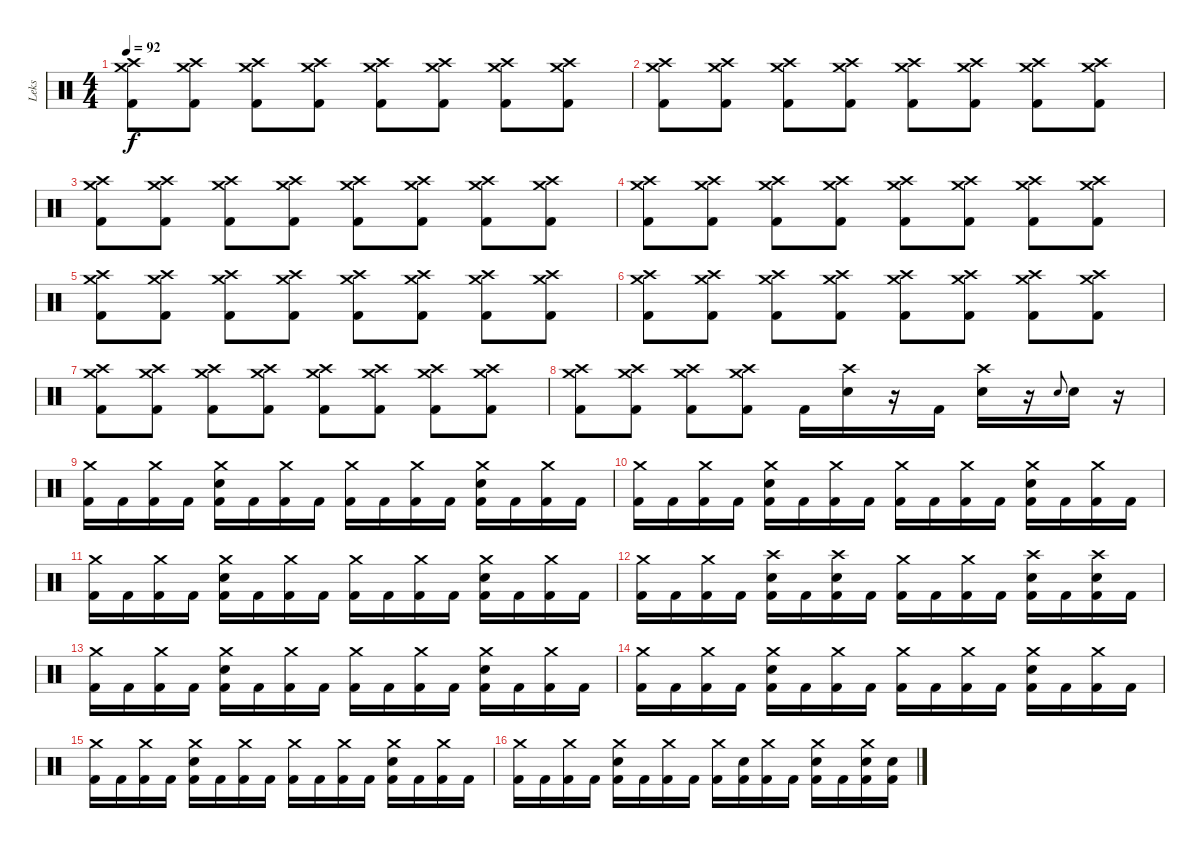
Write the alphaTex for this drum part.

\track ("Leks" "Leks") {instrument percussion}
\staff {score}
\articulation defaults
\ts (4 4)
\tempo 92
\clef neutral
\ks c
("Crash high (hit)" "Crash medium (hit)" "Kick (hit) 2").8{dy f} ("Crash high (hit)" "Crash medium (hit)" "Kick (hit) 2").8 ("Crash high (hit)" "Crash medium (hit)" "Kick (hit) 2").8 ("Crash high (hit)" "Crash medium (hit)" "Kick (hit) 2").8 ("Crash high (hit)" "Crash medium (hit)" "Kick (hit) 2").8 ("Crash high (hit)" "Crash medium (hit)" "Kick (hit) 2").8 ("Crash high (hit)" "Crash medium (hit)" "Kick (hit) 2").8 ("Crash high (hit)" "Crash medium (hit)" "Kick (hit) 2").8 |
("Crash high (hit)" "Crash medium (hit)" "Kick (hit) 2").8 ("Crash high (hit)" "Crash medium (hit)" "Kick (hit) 2").8 ("Crash high (hit)" "Crash medium (hit)" "Kick (hit) 2").8 ("Crash high (hit)" "Crash medium (hit)" "Kick (hit) 2").8 ("Crash high (hit)" "Crash medium (hit)" "Kick (hit) 2").8 ("Crash high (hit)" "Crash medium (hit)" "Kick (hit) 2").8 ("Crash high (hit)" "Crash medium (hit)" "Kick (hit) 2").8 ("Crash high (hit)" "Crash medium (hit)" "Kick (hit) 2").8 |
("Crash high (hit)" "Crash medium (hit)" "Kick (hit) 2").8 ("Crash high (hit)" "Crash medium (hit)" "Kick (hit) 2").8 ("Crash high (hit)" "Crash medium (hit)" "Kick (hit) 2").8 ("Crash high (hit)" "Crash medium (hit)" "Kick (hit) 2").8 ("Crash high (hit)" "Crash medium (hit)" "Kick (hit) 2").8 ("Crash high (hit)" "Crash medium (hit)" "Kick (hit) 2").8 ("Crash high (hit)" "Crash medium (hit)" "Kick (hit) 2").8 ("Crash high (hit)" "Crash medium (hit)" "Kick (hit) 2").8 |
("Crash high (hit)" "Crash medium (hit)" "Kick (hit) 2").8 ("Crash high (hit)" "Crash medium (hit)" "Kick (hit) 2").8 ("Crash high (hit)" "Crash medium (hit)" "Kick (hit) 2").8 ("Crash high (hit)" "Crash medium (hit)" "Kick (hit) 2").8 ("Crash high (hit)" "Crash medium (hit)" "Kick (hit) 2").8 ("Crash high (hit)" "Crash medium (hit)" "Kick (hit) 2").8 ("Crash high (hit)" "Crash medium (hit)" "Kick (hit) 2").8 ("Crash high (hit)" "Crash medium (hit)" "Kick (hit) 2").8 |
("Crash high (hit)" "Crash medium (hit)" "Kick (hit) 2").8 ("Crash high (hit)" "Crash medium (hit)" "Kick (hit) 2").8 ("Crash high (hit)" "Crash medium (hit)" "Kick (hit) 2").8 ("Crash high (hit)" "Crash medium (hit)" "Kick (hit) 2").8 ("Crash high (hit)" "Crash medium (hit)" "Kick (hit) 2").8 ("Crash high (hit)" "Crash medium (hit)" "Kick (hit) 2").8 ("Crash high (hit)" "Crash medium (hit)" "Kick (hit) 2").8 ("Crash high (hit)" "Crash medium (hit)" "Kick (hit) 2").8 |
("Crash high (hit)" "Crash medium (hit)" "Kick (hit) 2").8 ("Crash high (hit)" "Crash medium (hit)" "Kick (hit) 2").8 ("Crash high (hit)" "Crash medium (hit)" "Kick (hit) 2").8 ("Crash high (hit)" "Crash medium (hit)" "Kick (hit) 2").8 ("Crash high (hit)" "Crash medium (hit)" "Kick (hit) 2").8 ("Crash high (hit)" "Crash medium (hit)" "Kick (hit) 2").8 ("Crash high (hit)" "Crash medium (hit)" "Kick (hit) 2").8 ("Crash high (hit)" "Crash medium (hit)" "Kick (hit) 2").8 |
("Crash high (hit)" "Crash medium (hit)" "Kick (hit) 2").8 ("Crash high (hit)" "Crash medium (hit)" "Kick (hit) 2").8 ("Crash high (hit)" "Crash medium (hit)" "Kick (hit) 2").8 ("Crash high (hit)" "Crash medium (hit)" "Kick (hit) 2").8 ("Crash high (hit)" "Crash medium (hit)" "Kick (hit) 2").8 ("Crash high (hit)" "Crash medium (hit)" "Kick (hit) 2").8 ("Crash high (hit)" "Crash medium (hit)" "Kick (hit) 2").8 ("Crash high (hit)" "Crash medium (hit)" "Kick (hit) 2").8 |
("Crash high (hit)" "Crash medium (hit)" "Kick (hit) 2").8 ("Crash high (hit)" "Crash medium (hit)" "Kick (hit) 2").8 ("Crash high (hit)" "Crash medium (hit)" "Kick (hit) 2").8 ("Crash high (hit)" "Crash medium (hit)" "Kick (hit) 2").8 "Kick (hit) 2".16 ("Crash high (hit)" "Snare (hit) 2").16 r.16 "Kick (hit) 2".16 ("Crash high (hit)" "Snare (hit) 2").16 r.16 "Snare (hit) 2".8{gr onbeat} "Snare (hit) 2".16 r.16 |
("Crash medium (hit)" "Kick (hit) 2").16 "Kick (hit) 2".16 ("Crash medium (hit)" "Kick (hit) 2").16 "Kick (hit) 2".16 ("Crash medium (hit)" "Snare (hit) 2" "Kick (hit) 2").16 "Kick (hit) 2".16 ("Crash medium (hit)" "Kick (hit) 2").16 "Kick (hit) 2".16 ("Crash medium (hit)" "Kick (hit) 2").16 "Kick (hit) 2".16 ("Crash medium (hit)" "Kick (hit) 2").16 "Kick (hit) 2".16 ("Crash medium (hit)" "Snare (hit) 2" "Kick (hit) 2").16 "Kick (hit) 2".16 ("Crash medium (hit)" "Kick (hit) 2").16 "Kick (hit) 2".16 |
("Crash medium (hit)" "Kick (hit) 2").16 "Kick (hit) 2".16 ("Crash medium (hit)" "Kick (hit) 2").16 "Kick (hit) 2".16 ("Crash medium (hit)" "Snare (hit) 2" "Kick (hit) 2").16 "Kick (hit) 2".16 ("Crash medium (hit)" "Kick (hit) 2").16 "Kick (hit) 2".16 ("Crash medium (hit)" "Kick (hit) 2").16 "Kick (hit) 2".16 ("Crash medium (hit)" "Kick (hit) 2").16 "Kick (hit) 2".16 ("Crash medium (hit)" "Snare (hit) 2" "Kick (hit) 2").16 "Kick (hit) 2".16 ("Crash medium (hit)" "Kick (hit) 2").16 "Kick (hit) 2".16 |
("Crash medium (hit)" "Kick (hit) 2").16 "Kick (hit) 2".16 ("Crash medium (hit)" "Kick (hit) 2").16 "Kick (hit) 2".16 ("Crash medium (hit)" "Snare (hit) 2" "Kick (hit) 2").16 "Kick (hit) 2".16 ("Crash medium (hit)" "Kick (hit) 2").16 "Kick (hit) 2".16 ("Crash medium (hit)" "Kick (hit) 2").16 "Kick (hit) 2".16 ("Crash medium (hit)" "Kick (hit) 2").16 "Kick (hit) 2".16 ("Crash medium (hit)" "Snare (hit) 2" "Kick (hit) 2").16 "Kick (hit) 2".16 ("Crash medium (hit)" "Kick (hit) 2").16 "Kick (hit) 2".16 |
("Crash medium (hit)" "Kick (hit) 2").16 "Kick (hit) 2".16 ("Crash medium (hit)" "Kick (hit) 2").16 "Kick (hit) 2".16 ("Crash high (hit)" "Snare (hit) 2" "Kick (hit) 2").16 "Kick (hit) 2".16 ("Crash high (hit)" "Snare (hit) 2" "Kick (hit) 2").16 "Kick (hit) 2".16 ("Crash medium (hit)" "Kick (hit) 2").16 "Kick (hit) 2".16 ("Crash medium (hit)" "Kick (hit) 2").16 "Kick (hit) 2".16 ("Crash high (hit)" "Snare (hit) 2" "Kick (hit) 2").16 "Kick (hit) 2".16 ("Crash high (hit)" "Snare (hit) 2" "Kick (hit) 2").16 "Kick (hit) 2".16 |
("Crash medium (hit)" "Kick (hit) 2").16 "Kick (hit) 2".16 ("Crash medium (hit)" "Kick (hit) 2").16 "Kick (hit) 2".16 ("Crash medium (hit)" "Snare (hit) 2" "Kick (hit) 2").16 "Kick (hit) 2".16 ("Crash medium (hit)" "Kick (hit) 2").16 "Kick (hit) 2".16 ("Crash medium (hit)" "Kick (hit) 2").16 "Kick (hit) 2".16 ("Crash medium (hit)" "Kick (hit) 2").16 "Kick (hit) 2".16 ("Crash medium (hit)" "Snare (hit) 2" "Kick (hit) 2").16 "Kick (hit) 2".16 ("Crash medium (hit)" "Kick (hit) 2").16 "Kick (hit) 2".16 |
("Crash medium (hit)" "Kick (hit) 2").16 "Kick (hit) 2".16 ("Crash medium (hit)" "Kick (hit) 2").16 "Kick (hit) 2".16 ("Crash medium (hit)" "Snare (hit) 2" "Kick (hit) 2").16 "Kick (hit) 2".16 ("Crash medium (hit)" "Kick (hit) 2").16 "Kick (hit) 2".16 ("Crash medium (hit)" "Kick (hit) 2").16 "Kick (hit) 2".16 ("Crash medium (hit)" "Kick (hit) 2").16 "Kick (hit) 2".16 ("Crash medium (hit)" "Snare (hit) 2" "Kick (hit) 2").16 "Kick (hit) 2".16 ("Crash medium (hit)" "Kick (hit) 2").16 "Kick (hit) 2".16 |
("Crash medium (hit)" "Kick (hit) 2").16 "Kick (hit) 2".16 ("Crash medium (hit)" "Kick (hit) 2").16 "Kick (hit) 2".16 ("Crash medium (hit)" "Snare (hit) 2" "Kick (hit) 2").16 "Kick (hit) 2".16 ("Crash medium (hit)" "Kick (hit) 2").16 "Kick (hit) 2".16 ("Crash medium (hit)" "Kick (hit) 2").16 "Kick (hit) 2".16 ("Crash medium (hit)" "Kick (hit) 2").16 "Kick (hit) 2".16 ("Crash medium (hit)" "Snare (hit) 2" "Kick (hit) 2").16 "Kick (hit) 2".16 ("Crash medium (hit)" "Kick (hit) 2").16 "Kick (hit) 2".16 |
("Crash medium (hit)" "Kick (hit) 2").16 "Kick (hit) 2".16 ("Crash medium (hit)" "Kick (hit) 2").16 "Kick (hit) 2".16 ("Crash medium (hit)" "Snare (hit) 2" "Kick (hit) 2").16 "Kick (hit) 2".16 ("Crash medium (hit)" "Kick (hit) 2").16 "Kick (hit) 2".16 ("Crash medium (hit)" "Kick (hit) 2").16 ("Snare (hit) 2" "Kick (hit) 2").16 ("Crash medium (hit)" "Kick (hit) 2").16 "Kick (hit) 2".16 ("Crash medium (hit)" "Snare (hit) 2" "Kick (hit) 2").16 "Kick (hit) 2".16 ("Crash medium (hit)" "Snare (hit) 2" "Kick (hit) 2").16 ("Snare (hit) 2" "Kick (hit) 2").16
